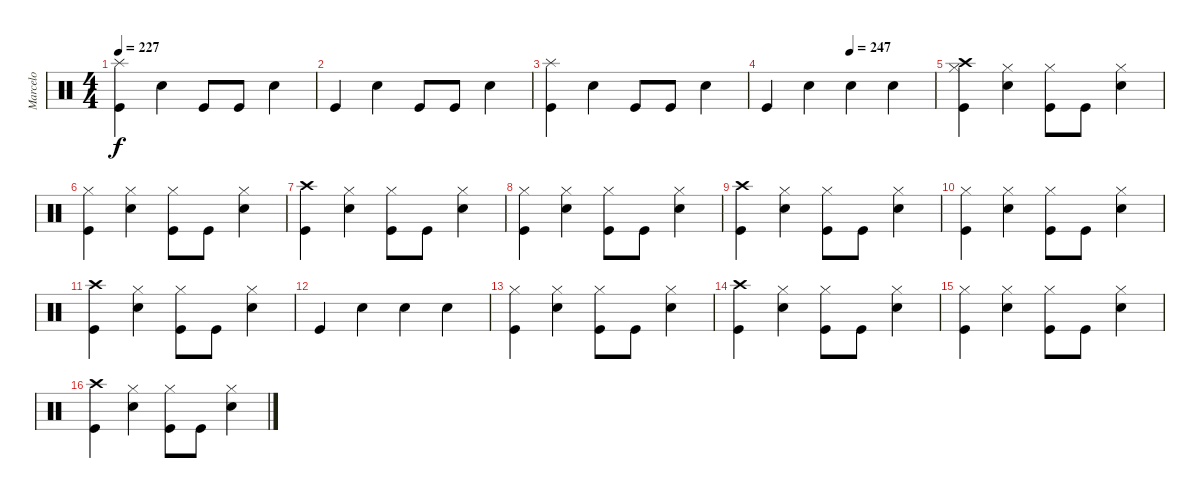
\track ("Marcelo" "Marcelo") {instrument percussion}
\staff {score}
\articulation defaults
\ts (4 4)
\tempo 227
\clef neutral
\ks c
("Splash (hit)" "Kick (hit)").4{dy f} "Snare (hit) 2".4 "Kick (hit)".8 "Kick (hit)".8 "Snare (hit) 2".4 |
"Kick (hit)".4 "Snare (hit) 2".4 "Kick (hit)".8 "Kick (hit)".8 "Snare (hit) 2".4 |
("Splash (hit)" "Kick (hit)").4 "Snare (hit) 2".4 "Kick (hit)".8 "Kick (hit)".8 "Snare (hit) 2".4 |
\tempo (247 0.5)
"Kick (hit)".4 "Snare (hit) 2".4 "Snare (hit) 2".4 "Snare (hit) 2".4 |
("Crash high (hit)" "Hi-Hat (closed)" "Kick (hit)").4 ("Hi-Hat (closed)" "Snare (hit) 2").4 ("Hi-Hat (closed)" "Kick (hit)").8 "Kick (hit)".8 ("Hi-Hat (closed)" "Snare (hit) 2").4 |
("Hi-Hat (closed)" "Kick (hit)").4 ("Hi-Hat (closed)" "Snare (hit) 2").4 ("Hi-Hat (closed)" "Kick (hit)").8 "Kick (hit)".8 ("Hi-Hat (closed)" "Snare (hit) 2").4 |
("Crash high (hit)" "Kick (hit)").4 ("Hi-Hat (closed)" "Snare (hit) 2").4 ("Hi-Hat (closed)" "Kick (hit)").8 "Kick (hit)".8 ("Hi-Hat (closed)" "Snare (hit) 2").4 |
("Hi-Hat (closed)" "Kick (hit)").4 ("Hi-Hat (closed)" "Snare (hit) 2").4 ("Hi-Hat (closed)" "Kick (hit)").8 "Kick (hit)".8 ("Hi-Hat (closed)" "Snare (hit) 2").4 |
("Crash high (hit)" "Kick (hit)").4 ("Hi-Hat (closed)" "Snare (hit) 2").4 ("Hi-Hat (closed)" "Kick (hit)").8 "Kick (hit)".8 ("Hi-Hat (closed)" "Snare (hit) 2").4 |
("Hi-Hat (closed)" "Kick (hit)").4 ("Hi-Hat (closed)" "Snare (hit) 2").4 ("Hi-Hat (closed)" "Kick (hit)").8 "Kick (hit)".8 ("Hi-Hat (closed)" "Snare (hit) 2").4 |
("Crash high (hit)" "Kick (hit)").4 ("Hi-Hat (closed)" "Snare (hit) 2").4 ("Hi-Hat (closed)" "Kick (hit)").8 "Kick (hit)".8 ("Hi-Hat (closed)" "Snare (hit) 2").4 |
"Kick (hit)".4 "Snare (hit) 2".4 "Snare (hit) 2".4 "Snare (hit) 2".4 |
("Hi-Hat (closed)" "Kick (hit)").4 ("Hi-Hat (closed)" "Snare (hit) 2").4 ("Hi-Hat (closed)" "Kick (hit)").8 "Kick (hit)".8 ("Hi-Hat (closed)" "Snare (hit) 2").4 |
("Crash high (hit)" "Kick (hit)").4 ("Hi-Hat (closed)" "Snare (hit) 2").4 ("Hi-Hat (closed)" "Kick (hit)").8 "Kick (hit)".8 ("Hi-Hat (closed)" "Snare (hit) 2").4 |
("Hi-Hat (closed)" "Kick (hit)").4 ("Hi-Hat (closed)" "Snare (hit) 2").4 ("Hi-Hat (closed)" "Kick (hit)").8 "Kick (hit)".8 ("Hi-Hat (closed)" "Snare (hit) 2").4 |
("Crash high (hit)" "Kick (hit)").4 ("Hi-Hat (closed)" "Snare (hit) 2").4 ("Hi-Hat (closed)" "Kick (hit)").8 "Kick (hit)".8 ("Hi-Hat (closed)" "Snare (hit) 2").4
